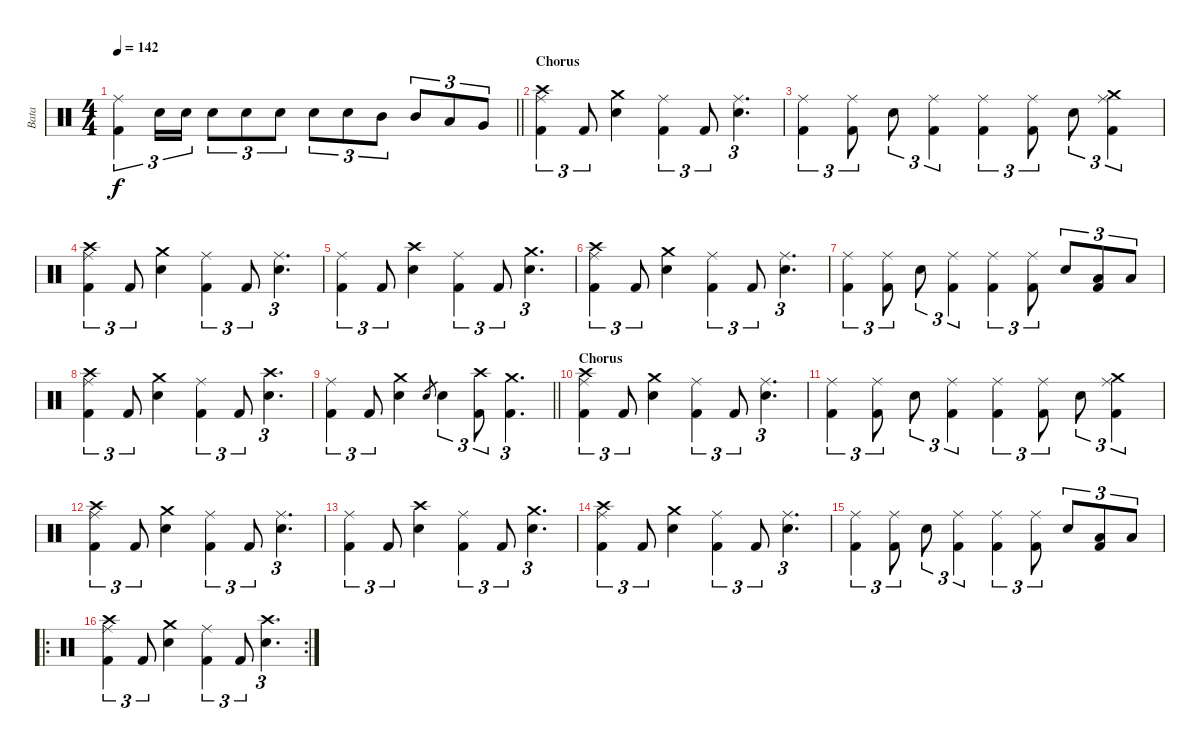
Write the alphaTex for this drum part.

\track ("Bata" "Bata") {instrument percussion}
\staff {score}
\articulation defaults
\ts (4 4)
\tempo 142
\clef neutral
\barLineRight lightlight
\ks c
("Ride (middle)" "Kick (hit) 2").4{tu (3 2) dy f} "Electric Snare (hit)".16{tu (3 2)} "Electric Snare (hit)".16{tu (3 2)} "Electric Snare (hit)".8{tu (3 2)} "Electric Snare (hit)".8{tu (3 2)} "Electric Snare (hit)".8{tu (3 2)} "Electric Snare (hit)".8{tu (3 2)} "Electric Snare (hit)".8{tu (3 2)} "Mid Tom (hit)".8{tu (3 2)} "Mid Tom (hit)".8{tu (3 2)} "Low Tom (hit)".8{tu (3 2)} "Very Low Tom (hit)".8{tu (3 2)} |
\section ("" "Chorus")
("Crash high (hit)" "Ride (middle)" "Kick (hit) 2").4{tu (3 2)} "Kick (hit) 2".8{tu (3 2)} ("Crash medium (hit)" "Electric Snare (hit)").4 ("Ride (middle)" "Kick (hit) 2").4{tu (3 2)} "Kick (hit) 2".8{tu (3 2)} ("Ride (middle)" "Electric Snare (hit)").4{d tu (3 2)} |
("Ride (middle)" "Kick (hit) 2").4{tu (3 2)} ("Ride (middle)" "Kick (hit) 2").8{tu (3 2)} "Electric Snare (hit)".8{tu (3 2)} ("Ride (middle)" "Kick (hit) 2").4{tu (3 2)} ("Ride (middle)" "Kick (hit) 2").4{tu (3 2)} ("Ride (middle)" "Kick (hit) 2").8{tu (3 2)} "Electric Snare (hit)".8{tu (3 2)} ("Crash medium (hit)" "Ride (middle)" "Kick (hit) 2").4{tu (3 2)} |
("Crash high (hit)" "Ride (middle)" "Kick (hit) 2").4{tu (3 2)} "Kick (hit) 2".8{tu (3 2)} ("Crash medium (hit)" "Electric Snare (hit)").4 ("Ride (middle)" "Kick (hit) 2").4{tu (3 2)} "Kick (hit) 2".8{tu (3 2)} ("Ride (middle)" "Electric Snare (hit)").4{d tu (3 2)} |
("Ride (middle)" "Kick (hit) 2").4{tu (3 2)} "Kick (hit) 2".8{tu (3 2)} ("Crash high (hit)" "Electric Snare (hit)").4 ("Ride (middle)" "Kick (hit) 2").4{tu (3 2)} "Kick (hit) 2".8{tu (3 2)} ("Crash medium (hit)" "Electric Snare (hit)").4{d tu (3 2)} |
("Crash high (hit)" "Ride (middle)" "Kick (hit) 2").4{tu (3 2)} "Kick (hit) 2".8{tu (3 2)} ("Crash medium (hit)" "Electric Snare (hit)").4 ("Ride (middle)" "Kick (hit) 2").4{tu (3 2)} "Kick (hit) 2".8{tu (3 2)} ("Ride (middle)" "Electric Snare (hit)").4{d tu (3 2)} |
("Ride (middle)" "Kick (hit) 2").4{tu (3 2)} ("Ride (middle)" "Kick (hit) 2").8{tu (3 2)} "Electric Snare (hit)".8{tu (3 2)} ("Ride (middle)" "Kick (hit) 2").4{tu (3 2)} ("Ride (middle)" "Kick (hit) 2").4{tu (3 2)} ("Ride (middle)" "Kick (hit) 2").8{tu (3 2)} "Electric Snare (hit)".8{tu (3 2)} ("Low Tom (hit)" "Kick (hit) 2").8{tu (3 2)} "Low Tom (hit)".8{tu (3 2)} |
("Crash high (hit)" "Ride (middle)" "Kick (hit) 2").4{tu (3 2)} "Kick (hit) 2".8{tu (3 2)} ("Crash medium (hit)" "Electric Snare (hit)").4 ("Ride (middle)" "Kick (hit) 2").4{tu (3 2)} "Kick (hit) 2".8{tu (3 2)} ("Crash high (hit)" "Electric Snare (hit)").4{d tu (3 2)} |
\barLineRight lightlight
("Ride (middle)" "Kick (hit) 2").4{tu (3 2)} "Kick (hit) 2".8{tu (3 2)} ("Crash medium (hit)" "Electric Snare (hit)").4 "Electric Snare (hit)".8{gr} "Electric Snare (hit)".4{tu (3 2)} ("Crash high (hit)" "Kick (hit) 2").8{tu (3 2)} ("Crash medium (hit)" "Kick (hit) 2").4{d tu (3 2)} |
\section ("" "Chorus")
("Crash high (hit)" "Ride (middle)" "Kick (hit) 2").4{tu (3 2)} "Kick (hit) 2".8{tu (3 2)} ("Crash medium (hit)" "Electric Snare (hit)").4 ("Ride (middle)" "Kick (hit) 2").4{tu (3 2)} "Kick (hit) 2".8{tu (3 2)} ("Ride (middle)" "Electric Snare (hit)").4{d tu (3 2)} |
("Ride (middle)" "Kick (hit) 2").4{tu (3 2)} ("Ride (middle)" "Kick (hit) 2").8{tu (3 2)} "Electric Snare (hit)".8{tu (3 2)} ("Ride (middle)" "Kick (hit) 2").4{tu (3 2)} ("Ride (middle)" "Kick (hit) 2").4{tu (3 2)} ("Ride (middle)" "Kick (hit) 2").8{tu (3 2)} "Electric Snare (hit)".8{tu (3 2)} ("Crash medium (hit)" "Ride (middle)" "Kick (hit) 2").4{tu (3 2)} |
("Crash high (hit)" "Ride (middle)" "Kick (hit) 2").4{tu (3 2)} "Kick (hit) 2".8{tu (3 2)} ("Crash medium (hit)" "Electric Snare (hit)").4 ("Ride (middle)" "Kick (hit) 2").4{tu (3 2)} "Kick (hit) 2".8{tu (3 2)} ("Ride (middle)" "Electric Snare (hit)").4{d tu (3 2)} |
("Ride (middle)" "Kick (hit) 2").4{tu (3 2)} "Kick (hit) 2".8{tu (3 2)} ("Crash high (hit)" "Electric Snare (hit)").4 ("Ride (middle)" "Kick (hit) 2").4{tu (3 2)} "Kick (hit) 2".8{tu (3 2)} ("Crash medium (hit)" "Electric Snare (hit)").4{d tu (3 2)} |
("Crash high (hit)" "Ride (middle)" "Kick (hit) 2").4{tu (3 2)} "Kick (hit) 2".8{tu (3 2)} ("Crash medium (hit)" "Electric Snare (hit)").4 ("Ride (middle)" "Kick (hit) 2").4{tu (3 2)} "Kick (hit) 2".8{tu (3 2)} ("Ride (middle)" "Electric Snare (hit)").4{d tu (3 2)} |
("Ride (middle)" "Kick (hit) 2").4{tu (3 2)} ("Ride (middle)" "Kick (hit) 2").8{tu (3 2)} "Electric Snare (hit)".8{tu (3 2)} ("Ride (middle)" "Kick (hit) 2").4{tu (3 2)} ("Ride (middle)" "Kick (hit) 2").4{tu (3 2)} ("Ride (middle)" "Kick (hit) 2").8{tu (3 2)} "Electric Snare (hit)".8{tu (3 2)} ("Low Tom (hit)" "Kick (hit) 2").8{tu (3 2)} "Low Tom (hit)".8{tu (3 2)} |
\ro
\rc 2
("Crash high (hit)" "Ride (middle)" "Kick (hit) 2").4{tu (3 2)} "Kick (hit) 2".8{tu (3 2)} ("Crash medium (hit)" "Electric Snare (hit)").4 ("Ride (middle)" "Kick (hit) 2").4{tu (3 2)} "Kick (hit) 2".8{tu (3 2)} ("Crash high (hit)" "Electric Snare (hit)").4{d tu (3 2)}
